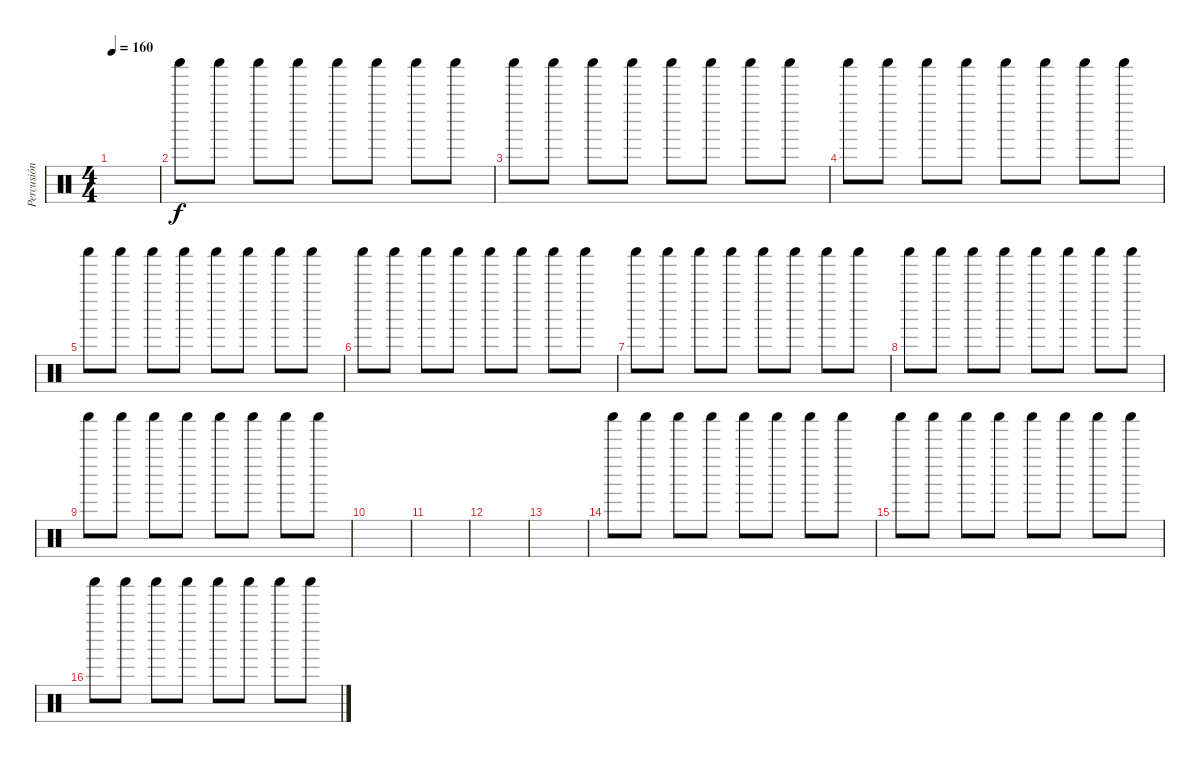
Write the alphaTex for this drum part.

\track ("Percusión" "Percusión") {instrument percussion}
\staff {score}
\articulation defaults
\ts (4 4)
\tempo 160
\clef neutral
\ks c
|
"Shaker (hit)".8 "Shaker (hit)".8 "Shaker (hit)".8 "Shaker (hit)".8 "Shaker (hit)".8 "Shaker (hit)".8 "Shaker (hit)".8 "Shaker (hit)".8 |
"Shaker (hit)".8 "Shaker (hit)".8 "Shaker (hit)".8 "Shaker (hit)".8 "Shaker (hit)".8 "Shaker (hit)".8 "Shaker (hit)".8 "Shaker (hit)".8 |
"Shaker (hit)".8 "Shaker (hit)".8 "Shaker (hit)".8 "Shaker (hit)".8 "Shaker (hit)".8 "Shaker (hit)".8 "Shaker (hit)".8 "Shaker (hit)".8 |
"Shaker (hit)".8 "Shaker (hit)".8 "Shaker (hit)".8 "Shaker (hit)".8 "Shaker (hit)".8 "Shaker (hit)".8 "Shaker (hit)".8 "Shaker (hit)".8 |
"Shaker (hit)".8 "Shaker (hit)".8 "Shaker (hit)".8 "Shaker (hit)".8 "Shaker (hit)".8 "Shaker (hit)".8 "Shaker (hit)".8 "Shaker (hit)".8 |
"Shaker (hit)".8 "Shaker (hit)".8 "Shaker (hit)".8 "Shaker (hit)".8 "Shaker (hit)".8 "Shaker (hit)".8 "Shaker (hit)".8 "Shaker (hit)".8 |
"Shaker (hit)".8 "Shaker (hit)".8 "Shaker (hit)".8 "Shaker (hit)".8 "Shaker (hit)".8 "Shaker (hit)".8 "Shaker (hit)".8 "Shaker (hit)".8 |
"Shaker (hit)".8 "Shaker (hit)".8 "Shaker (hit)".8 "Shaker (hit)".8 "Shaker (hit)".8 "Shaker (hit)".8 "Shaker (hit)".8 "Shaker (hit)".8 |
|
|
|
|
"Shaker (hit)".8 "Shaker (hit)".8 "Shaker (hit)".8 "Shaker (hit)".8 "Shaker (hit)".8 "Shaker (hit)".8 "Shaker (hit)".8 "Shaker (hit)".8 |
"Shaker (hit)".8 "Shaker (hit)".8 "Shaker (hit)".8 "Shaker (hit)".8 "Shaker (hit)".8 "Shaker (hit)".8 "Shaker (hit)".8 "Shaker (hit)".8 |
"Shaker (hit)".8 "Shaker (hit)".8 "Shaker (hit)".8 "Shaker (hit)".8 "Shaker (hit)".8 "Shaker (hit)".8 "Shaker (hit)".8 "Shaker (hit)".8
